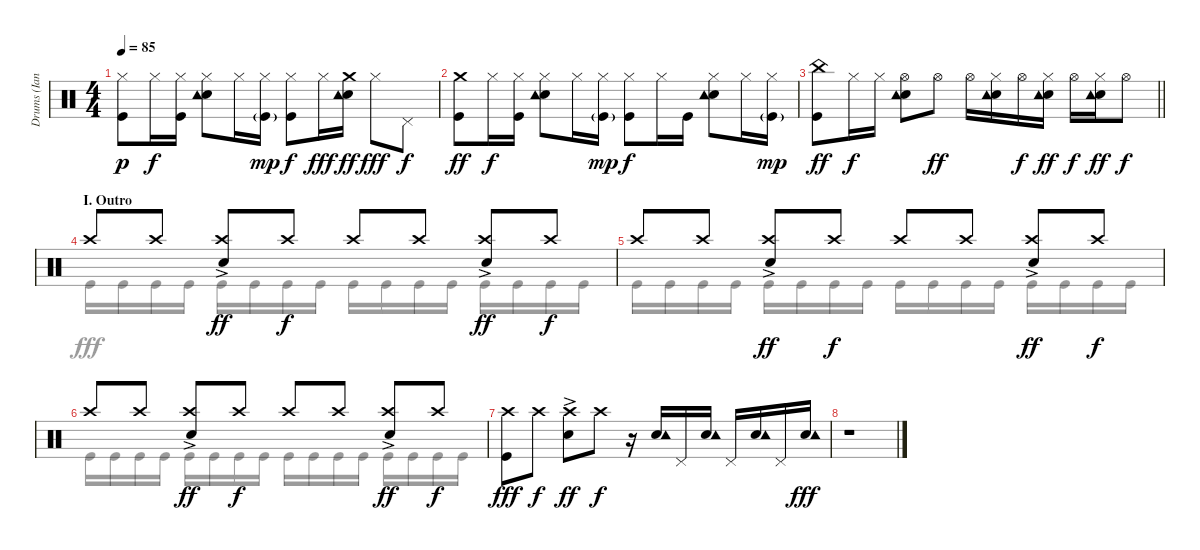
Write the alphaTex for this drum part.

\track ("Drums (Ian Paice)" "Drums (Ian") {instrument percussion}
\staff {score}
\articulation defaults
\voice
\ts (4 4)
\tempo 85
\clef neutral
\ks aminor
("Hi-Hat (closed)" "Kick (hit)").8{dy p} "Hi-Hat (closed)".16{dy f} ("Hi-Hat (closed)" "Kick (hit)").16 ("Hi-Hat (closed)" "Electric Snare (hit)" "Tambourine (hit)").8 "Hi-Hat (closed)".16 ("Hi-Hat (closed)" "Kick (hit)"{g}).16{dy mp} ("Hi-Hat (closed)" "Kick (hit)").8{dy f} "Hi-Hat (closed)".16{dy fff} ("Crash medium (hit)" "Electric Snare (hit)" "Tambourine (hit)").16{dy ff} "Hi-Hat (closed)".8{dy fff} "Pedal Hi-Hat (hit)".8{dy f} |
("Crash medium (hit)" "Kick (hit)").8{dy ff} "Hi-Hat (closed)".16{dy f} ("Hi-Hat (closed)" "Kick (hit)").16 ("Hi-Hat (closed)" "Electric Snare (hit)" "Tambourine (hit)").8 "Hi-Hat (closed)".16 ("Hi-Hat (closed)" "Kick (hit)"{g}).16{dy mp} ("Hi-Hat (closed)" "Kick (hit)").8{dy f} "Hi-Hat (closed)".16 "Kick (hit)".16 ("Hi-Hat (closed)" "Electric Snare (hit)" "Tambourine (hit)").8 "Hi-Hat (closed)".16 ("Hi-Hat (closed)" "Kick (hit)"{g}).16{dy mp} |
\barLineRight lightlight
("China (hit)" "Kick (hit)").8{dy ff} "Hi-Hat (closed)".16{dy f} "Hi-Hat (closed)".16 ("Hi-Hat (open)" "Electric Snare (hit)" "Tambourine (hit)").8 "Hi-Hat (open)".8{dy ff} "Hi-Hat (open)".16 ("Hi-Hat (closed)" "Electric Snare (hit)" "Tambourine (hit)").16 "Hi-Hat (open)".16{dy f} ("Hi-Hat (closed)" "Electric Snare (hit)" "Tambourine (hit)").16{dy ff} "Hi-Hat (open)".16{dy f} ("Hi-Hat (closed)" "Electric Snare (hit)" "Tambourine (hit)").16{dy ff} "Hi-Hat (open)".8{dy f} |
\section ("" "I. Outro")
"Crash high (hit)".8 "Crash high (hit)".8 ("Crash high (hit)"{ac} "Electric Snare (hit)").8{dy ff} "Crash high (hit)".8{dy f} "Crash high (hit)".8 "Crash high (hit)".8 ("Crash high (hit)"{ac} "Electric Snare (hit)").8{dy ff} "Crash high (hit)".8{dy f} |
"Crash high (hit)".8 "Crash high (hit)".8 ("Crash high (hit)"{ac} "Electric Snare (hit)").8{dy ff} "Crash high (hit)".8{dy f} "Crash high (hit)".8 "Crash high (hit)".8 ("Crash high (hit)"{ac} "Electric Snare (hit)").8{dy ff} "Crash high (hit)".8{dy f} |
"Crash high (hit)".8 "Crash high (hit)".8 ("Crash high (hit)"{ac} "Electric Snare (hit)").8{dy ff} "Crash high (hit)".8{dy f} "Crash high (hit)".8 "Crash high (hit)".8 ("Crash high (hit)"{ac} "Electric Snare (hit)").8{dy ff} "Crash high (hit)".8{dy f} |
("Crash high (hit)" "Kick (hit)").8{dy fff} "Crash high (hit)".8{dy f} ("Crash high (hit)"{ac} "Electric Snare (hit)").8{dy ff} "Crash high (hit)".8{dy f} r.16 ("Electric Snare (hit)" "Tambourine (hit)").16 "Pedal Hi-Hat (hit)".16 ("Electric Snare (hit)" "Tambourine (hit)").16 "Pedal Hi-Hat (hit)".16 ("Electric Snare (hit)" "Tambourine (hit)").16 "Pedal Hi-Hat (hit)".16 ("Electric Snare (hit)" "Tambourine (hit)").16{dy fff} |
r.1
\voice
\clef neutral
\ottava regular
\simile none
\ks aminor
|
|
\barLineRight lightlight
|
"Kick (hit)".16 "Kick (hit)".16 "Kick (hit)".16 "Kick (hit)".16 "Kick (hit)".16 "Kick (hit)".16 "Kick (hit)".16 "Kick (hit)".16 "Kick (hit)".16 "Kick (hit)".16 "Kick (hit)".16 "Kick (hit)".16 "Kick (hit)".16 "Kick (hit)".16 "Kick (hit)".16 "Kick (hit)".16 |
"Kick (hit)".16 "Kick (hit)".16 "Kick (hit)".16 "Kick (hit)".16 "Kick (hit)".16 "Kick (hit)".16 "Kick (hit)".16 "Kick (hit)".16 "Kick (hit)".16 "Kick (hit)".16 "Kick (hit)".16 "Kick (hit)".16 "Kick (hit)".16 "Kick (hit)".16 "Kick (hit)".16 "Kick (hit)".16 |
"Kick (hit)".16 "Kick (hit)".16 "Kick (hit)".16 "Kick (hit)".16 "Kick (hit)".16 "Kick (hit)".16 "Kick (hit)".16 "Kick (hit)".16 "Kick (hit)".16 "Kick (hit)".16 "Kick (hit)".16 "Kick (hit)".16 "Kick (hit)".16 "Kick (hit)".16 "Kick (hit)".16 "Kick (hit)".16 |
|
